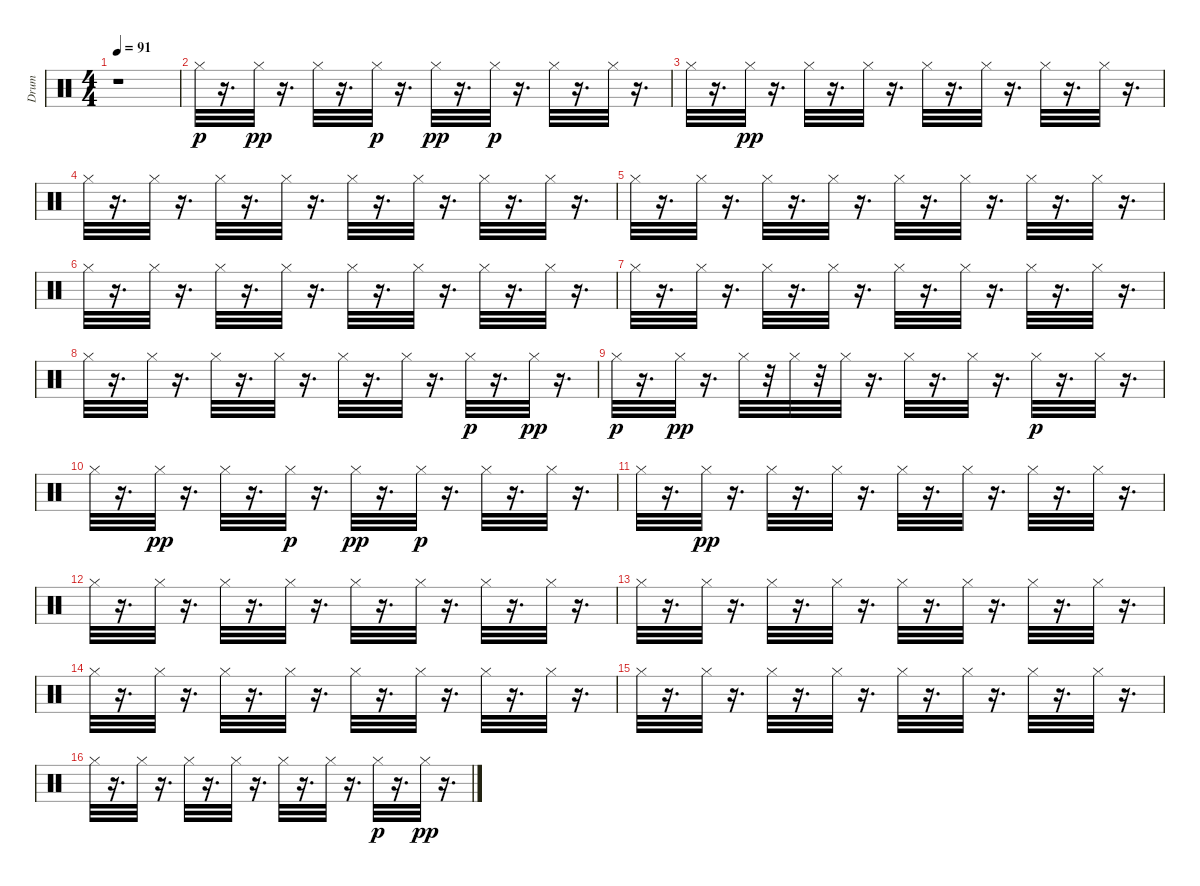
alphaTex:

\track ("Drum" "Drum") {instrument percussion}
\staff {score}
\articulation defaults
\ts (4 4)
\tempo 91
\clef neutral
\ks c
r.1{dy p} |
"Hi-Hat (closed)".32 r.16{d} "Hi-Hat (closed)".32{dy pp} r.16{d} "Hi-Hat (closed)".32 r.16{d} "Hi-Hat (closed)".32{dy p} r.16{d} "Hi-Hat (closed)".32{dy pp} r.16{d} "Hi-Hat (closed)".32{dy p} r.16{d} "Hi-Hat (closed)".32 r.16{d} "Hi-Hat (closed)".32 r.16{d} |
"Hi-Hat (closed)".32 r.16{d} "Hi-Hat (closed)".32{dy pp} r.16{d} "Hi-Hat (closed)".32 r.16{d} "Hi-Hat (closed)".32 r.16{d} "Hi-Hat (closed)".32 r.16{d} "Hi-Hat (closed)".32 r.16{d} "Hi-Hat (closed)".32 r.16{d} "Hi-Hat (closed)".32 r.16{d} |
"Hi-Hat (closed)".32 r.16{d} "Hi-Hat (closed)".32 r.16{d} "Hi-Hat (closed)".32 r.16{d} "Hi-Hat (closed)".32 r.16{d} "Hi-Hat (closed)".32 r.16{d} "Hi-Hat (closed)".32 r.16{d} "Hi-Hat (closed)".32 r.16{d} "Hi-Hat (closed)".32 r.16{d} |
"Hi-Hat (closed)".32 r.16{d} "Hi-Hat (closed)".32 r.16{d} "Hi-Hat (closed)".32 r.16{d} "Hi-Hat (closed)".32 r.16{d} "Hi-Hat (closed)".32 r.16{d} "Hi-Hat (closed)".32 r.16{d} "Hi-Hat (closed)".32 r.16{d} "Hi-Hat (closed)".32 r.16{d} |
"Hi-Hat (closed)".32 r.16{d} "Hi-Hat (closed)".32 r.16{d} "Hi-Hat (closed)".32 r.16{d} "Hi-Hat (closed)".32 r.16{d} "Hi-Hat (closed)".32 r.16{d} "Hi-Hat (closed)".32 r.16{d} "Hi-Hat (closed)".32 r.16{d} "Hi-Hat (closed)".32 r.16{d} |
"Hi-Hat (closed)".32 r.16{d} "Hi-Hat (closed)".32 r.16{d} "Hi-Hat (closed)".32 r.16{d} "Hi-Hat (closed)".32 r.16{d} "Hi-Hat (closed)".32 r.16{d} "Hi-Hat (closed)".32 r.16{d} "Hi-Hat (closed)".32 r.16{d} "Hi-Hat (closed)".32 r.16{d} |
"Hi-Hat (closed)".32 r.16{d} "Hi-Hat (closed)".32 r.16{d} "Hi-Hat (closed)".32 r.16{d} "Hi-Hat (closed)".32 r.16{d} "Hi-Hat (closed)".32 r.16{d} "Hi-Hat (closed)".32 r.16{d} "Hi-Hat (closed)".32{dy p} r.16{d} "Hi-Hat (closed)".32{dy pp} r.16{d} |
"Hi-Hat (closed)".32{dy p} r.16{d} "Hi-Hat (closed)".32{dy pp} r.16{d} "Hi-Hat (closed)".32 r.32 "Hi-Hat (closed)".32 r.32 "Hi-Hat (closed)".32 r.16{d} "Hi-Hat (closed)".32 r.16{d} "Hi-Hat (closed)".32 r.16{d} "Hi-Hat (closed)".32{dy p} r.16{d} "Hi-Hat (closed)".32 r.16{d} |
"Hi-Hat (closed)".32 r.16{d} "Hi-Hat (closed)".32{dy pp} r.16{d} "Hi-Hat (closed)".32 r.16{d} "Hi-Hat (closed)".32{dy p} r.16{d} "Hi-Hat (closed)".32{dy pp} r.16{d} "Hi-Hat (closed)".32{dy p} r.16{d} "Hi-Hat (closed)".32 r.16{d} "Hi-Hat (closed)".32 r.16{d} |
"Hi-Hat (closed)".32 r.16{d} "Hi-Hat (closed)".32{dy pp} r.16{d} "Hi-Hat (closed)".32 r.16{d} "Hi-Hat (closed)".32 r.16{d} "Hi-Hat (closed)".32 r.16{d} "Hi-Hat (closed)".32 r.16{d} "Hi-Hat (closed)".32 r.16{d} "Hi-Hat (closed)".32 r.16{d} |
"Hi-Hat (closed)".32 r.16{d} "Hi-Hat (closed)".32 r.16{d} "Hi-Hat (closed)".32 r.16{d} "Hi-Hat (closed)".32 r.16{d} "Hi-Hat (closed)".32 r.16{d} "Hi-Hat (closed)".32 r.16{d} "Hi-Hat (closed)".32 r.16{d} "Hi-Hat (closed)".32 r.16{d} |
"Hi-Hat (closed)".32 r.16{d} "Hi-Hat (closed)".32 r.16{d} "Hi-Hat (closed)".32 r.16{d} "Hi-Hat (closed)".32 r.16{d} "Hi-Hat (closed)".32 r.16{d} "Hi-Hat (closed)".32 r.16{d} "Hi-Hat (closed)".32 r.16{d} "Hi-Hat (closed)".32 r.16{d} |
"Hi-Hat (closed)".32 r.16{d} "Hi-Hat (closed)".32 r.16{d} "Hi-Hat (closed)".32 r.16{d} "Hi-Hat (closed)".32 r.16{d} "Hi-Hat (closed)".32 r.16{d} "Hi-Hat (closed)".32 r.16{d} "Hi-Hat (closed)".32 r.16{d} "Hi-Hat (closed)".32 r.16{d} |
"Hi-Hat (closed)".32 r.16{d} "Hi-Hat (closed)".32 r.16{d} "Hi-Hat (closed)".32 r.16{d} "Hi-Hat (closed)".32 r.16{d} "Hi-Hat (closed)".32 r.16{d} "Hi-Hat (closed)".32 r.16{d} "Hi-Hat (closed)".32 r.16{d} "Hi-Hat (closed)".32 r.16{d} |
"Hi-Hat (closed)".32 r.16{d} "Hi-Hat (closed)".32 r.16{d} "Hi-Hat (closed)".32 r.16{d} "Hi-Hat (closed)".32 r.16{d} "Hi-Hat (closed)".32 r.16{d} "Hi-Hat (closed)".32 r.16{d} "Hi-Hat (closed)".32{dy p} r.16{d} "Hi-Hat (closed)".32{dy pp} r.16{d}
